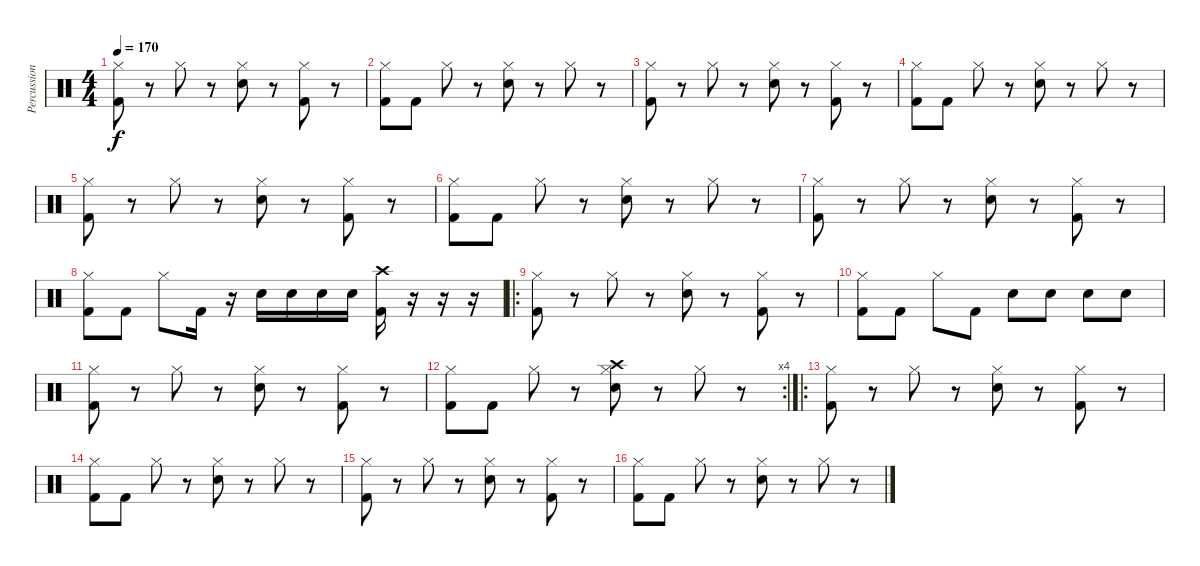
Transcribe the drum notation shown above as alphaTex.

\track ("Percussions" "Percussion") {instrument percussion}
\staff {score}
\articulation defaults
\ts (4 4)
\tempo 170
\clef neutral
\ks c
("Kick (hit) 2" "Hi-Hat (closed)").8{dy f} r.8 "Hi-Hat (closed)".8 r.8 ("Electric Snare (hit)" "Hi-Hat (closed)").8 r.8 ("Kick (hit) 2" "Hi-Hat (closed)").8 r.8 |
("Kick (hit) 2" "Hi-Hat (closed)").8 "Kick (hit) 2".8 "Hi-Hat (closed)".8 r.8 ("Electric Snare (hit)" "Hi-Hat (closed)").8 r.8 "Hi-Hat (closed)".8 r.8 |
("Kick (hit) 2" "Hi-Hat (closed)").8 r.8 "Hi-Hat (closed)".8 r.8 ("Electric Snare (hit)" "Hi-Hat (closed)").8 r.8 ("Kick (hit) 2" "Hi-Hat (closed)").8 r.8 |
("Kick (hit) 2" "Hi-Hat (closed)").8 "Kick (hit) 2".8 "Hi-Hat (closed)".8 r.8 ("Electric Snare (hit)" "Hi-Hat (closed)").8 r.8 "Hi-Hat (closed)".8 r.8 |
("Kick (hit) 2" "Hi-Hat (closed)").8 r.8 "Hi-Hat (closed)".8 r.8 ("Electric Snare (hit)" "Hi-Hat (closed)").8 r.8 ("Kick (hit) 2" "Hi-Hat (closed)").8 r.8 |
("Kick (hit) 2" "Hi-Hat (closed)").8 "Kick (hit) 2".8 "Hi-Hat (closed)".8 r.8 ("Electric Snare (hit)" "Hi-Hat (closed)").8 r.8 "Hi-Hat (closed)".8 r.8 |
("Kick (hit) 2" "Hi-Hat (closed)").8 r.8 "Hi-Hat (closed)".8 r.8 ("Electric Snare (hit)" "Hi-Hat (closed)").8 r.8 ("Kick (hit) 2" "Hi-Hat (closed)").8 r.8 |
("Kick (hit) 2" "Hi-Hat (closed)").8 "Kick (hit) 2".8 "Hi-Hat (closed)".8 "Kick (hit) 2".16 r.16 "Electric Snare (hit)".16 "Electric Snare (hit)".16 "Electric Snare (hit)".16 "Electric Snare (hit)".16 ("Kick (hit) 2" "Crash high (hit)").16 r.16 r.16 r.16 |
\ro
("Kick (hit) 2" "Hi-Hat (closed)").8 r.8 "Hi-Hat (closed)".8 r.8 ("Electric Snare (hit)" "Hi-Hat (closed)").8 r.8 ("Kick (hit) 2" "Hi-Hat (closed)").8 r.8 |
("Kick (hit) 2" "Hi-Hat (closed)").8 "Kick (hit) 2".8 "Hi-Hat (closed)".8 "Kick (hit) 2".8 "Electric Snare (hit)".8 "Electric Snare (hit)".8 "Electric Snare (hit)".8 "Electric Snare (hit)".8 |
("Kick (hit) 2" "Hi-Hat (closed)").8 r.8 "Hi-Hat (closed)".8 r.8 ("Electric Snare (hit)" "Hi-Hat (closed)").8 r.8 ("Kick (hit) 2" "Hi-Hat (closed)").8 r.8 |
\rc 4
("Kick (hit) 2" "Hi-Hat (closed)").8 "Kick (hit) 2".8 "Hi-Hat (closed)".8 r.8 ("Crash high (hit)" "Electric Snare (hit)" "Hi-Hat (closed)").8 r.8 "Hi-Hat (closed)".8 r.8 |
\ro
("Kick (hit) 2" "Hi-Hat (closed)").8 r.8 "Hi-Hat (closed)".8 r.8 ("Electric Snare (hit)" "Hi-Hat (closed)").8 r.8 ("Kick (hit) 2" "Hi-Hat (closed)").8 r.8 |
("Kick (hit) 2" "Hi-Hat (closed)").8 "Kick (hit) 2".8 "Hi-Hat (closed)".8 r.8 ("Electric Snare (hit)" "Hi-Hat (closed)").8 r.8 "Hi-Hat (closed)".8 r.8 |
("Kick (hit) 2" "Hi-Hat (closed)").8 r.8 "Hi-Hat (closed)".8 r.8 ("Electric Snare (hit)" "Hi-Hat (closed)").8 r.8 ("Kick (hit) 2" "Hi-Hat (closed)").8 r.8 |
("Kick (hit) 2" "Hi-Hat (closed)").8 "Kick (hit) 2".8 "Hi-Hat (closed)".8 r.8 ("Electric Snare (hit)" "Hi-Hat (closed)").8 r.8 "Hi-Hat (closed)".8 r.8
